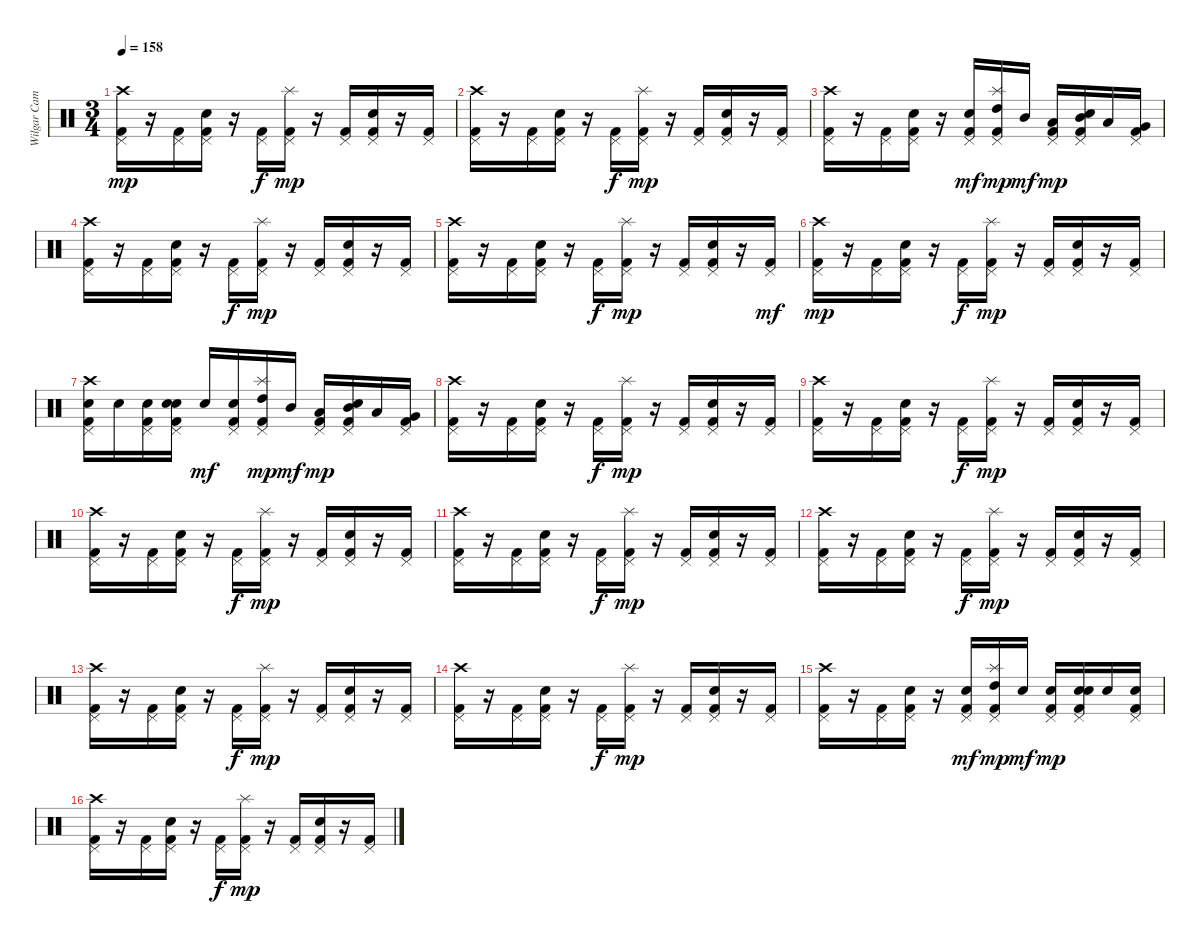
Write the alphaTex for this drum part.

\track ("Wilgar Campbell" "Wilgar Cam") {instrument percussion}
\staff {score}
\articulation defaults
\ts (3 4)
\tempo 158
\clef neutral
\ks c
("Crash high (hit)" "Pedal Hi-Hat (hit)" "Kick (hit) 2").16{dy mp} r.16 ("Pedal Hi-Hat (hit)" "Kick (hit) 2").16 ("Snare (hit) 2" "Pedal Hi-Hat (hit)" "Kick (hit) 2").16 r.16 ("Pedal Hi-Hat (hit)" "Kick (hit) 2").16{dy f} ("Splash (hit)" "Pedal Hi-Hat (hit)" "Kick (hit) 2").16{dy mp} r.16 ("Pedal Hi-Hat (hit)" "Kick (hit) 2").16 ("Snare (hit) 2" "Pedal Hi-Hat (hit)" "Kick (hit) 2").16 r.16 ("Pedal Hi-Hat (hit)" "Kick (hit) 2").16 |
("Crash high (hit)" "Pedal Hi-Hat (hit)" "Kick (hit) 2").16 r.16 ("Pedal Hi-Hat (hit)" "Kick (hit) 2").16 ("Snare (hit) 2" "Pedal Hi-Hat (hit)" "Kick (hit) 2").16 r.16 ("Pedal Hi-Hat (hit)" "Kick (hit) 2").16{dy f} ("Splash (hit)" "Pedal Hi-Hat (hit)" "Kick (hit) 2").16{dy mp} r.16 ("Pedal Hi-Hat (hit)" "Kick (hit) 2").16 ("Snare (hit) 2" "Pedal Hi-Hat (hit)" "Kick (hit) 2").16 r.16 ("Pedal Hi-Hat (hit)" "Kick (hit) 2").16 |
("Crash high (hit)" "Pedal Hi-Hat (hit)" "Kick (hit) 2").16 r.16 ("Pedal Hi-Hat (hit)" "Kick (hit) 2").16 ("Snare (hit) 2" "Pedal Hi-Hat (hit)" "Kick (hit) 2").16 r.16 ("Pedal Hi-Hat (hit)" "Electric Snare (hit)" "Kick (hit) 2").16{dy mf} ("Splash (hit)" "Pedal Hi-Hat (hit)" "High Tom (hit)" "Kick (hit) 2").16{dy mp} "Mid Tom (hit)".16{dy mf} ("Pedal Hi-Hat (hit)" "Low Tom (hit)" "Kick (hit) 2").16{dy mp} ("Snare (hit) 2" "Pedal Hi-Hat (hit)" "Mid Tom (hit)" "Kick (hit) 2").16 "Low Tom (hit)".16 ("Pedal Hi-Hat (hit)" "Very Low Tom (hit)" "Kick (hit) 2").16 |
("Crash high (hit)" "Pedal Hi-Hat (hit)" "Kick (hit) 2").16 r.16 ("Pedal Hi-Hat (hit)" "Kick (hit) 2").16 ("Snare (hit) 2" "Pedal Hi-Hat (hit)" "Kick (hit) 2").16 r.16 ("Pedal Hi-Hat (hit)" "Kick (hit) 2").16{dy f} ("Splash (hit)" "Pedal Hi-Hat (hit)" "Kick (hit) 2").16{dy mp} r.16 ("Pedal Hi-Hat (hit)" "Kick (hit) 2").16 ("Snare (hit) 2" "Pedal Hi-Hat (hit)" "Kick (hit) 2").16 r.16 ("Pedal Hi-Hat (hit)" "Kick (hit) 2").16 |
("Crash high (hit)" "Pedal Hi-Hat (hit)" "Kick (hit) 2").16 r.16 ("Pedal Hi-Hat (hit)" "Kick (hit) 2").16 ("Snare (hit) 2" "Pedal Hi-Hat (hit)" "Kick (hit) 2").16 r.16 ("Pedal Hi-Hat (hit)" "Kick (hit) 2").16{dy f} ("Splash (hit)" "Pedal Hi-Hat (hit)" "Kick (hit) 2").16{dy mp} r.16 ("Pedal Hi-Hat (hit)" "Kick (hit) 2").16 ("Snare (hit) 2" "Pedal Hi-Hat (hit)" "Kick (hit) 2").16 r.16 ("Pedal Hi-Hat (hit)" "Kick (hit) 2").16{dy mf} |
("Crash high (hit)" "Pedal Hi-Hat (hit)" "Kick (hit) 2").16{dy mp} r.16 ("Pedal Hi-Hat (hit)" "Kick (hit) 2").16 ("Snare (hit) 2" "Pedal Hi-Hat (hit)" "Kick (hit) 2").16 r.16 ("Pedal Hi-Hat (hit)" "Kick (hit) 2").16{dy f} ("Splash (hit)" "Pedal Hi-Hat (hit)" "Kick (hit) 2").16{dy mp} r.16 ("Pedal Hi-Hat (hit)" "Kick (hit) 2").16 ("Snare (hit) 2" "Pedal Hi-Hat (hit)" "Kick (hit) 2").16 r.16 ("Pedal Hi-Hat (hit)" "Kick (hit) 2").16 |
("Crash high (hit)" "Pedal Hi-Hat (hit)" "Electric Snare (hit)" "Kick (hit) 2").16 "Electric Snare (hit)".16 ("Pedal Hi-Hat (hit)" "Electric Snare (hit)" "Kick (hit) 2").16 ("Snare (hit) 2" "Pedal Hi-Hat (hit)" "Electric Snare (hit)" "Kick (hit) 2").16 "Electric Snare (hit)".16{dy mf} ("Pedal Hi-Hat (hit)" "Electric Snare (hit)" "Kick (hit) 2").16 ("Splash (hit)" "Pedal Hi-Hat (hit)" "High Tom (hit)" "Kick (hit) 2").16{dy mp} "Mid Tom (hit)".16{dy mf} ("Pedal Hi-Hat (hit)" "Low Tom (hit)" "Kick (hit) 2").16{dy mp} ("Snare (hit) 2" "Pedal Hi-Hat (hit)" "Mid Tom (hit)" "Kick (hit) 2").16 "Low Tom (hit)".16 ("Pedal Hi-Hat (hit)" "Very Low Tom (hit)" "Kick (hit) 2").16 |
("Crash high (hit)" "Pedal Hi-Hat (hit)" "Kick (hit) 2").16 r.16 ("Pedal Hi-Hat (hit)" "Kick (hit) 2").16 ("Snare (hit) 2" "Pedal Hi-Hat (hit)" "Kick (hit) 2").16 r.16 ("Pedal Hi-Hat (hit)" "Kick (hit) 2").16{dy f} ("Splash (hit)" "Pedal Hi-Hat (hit)" "Kick (hit) 2").16{dy mp} r.16 ("Pedal Hi-Hat (hit)" "Kick (hit) 2").16 ("Snare (hit) 2" "Pedal Hi-Hat (hit)" "Kick (hit) 2").16 r.16 ("Pedal Hi-Hat (hit)" "Kick (hit) 2").16 |
("Crash high (hit)" "Pedal Hi-Hat (hit)" "Kick (hit) 2").16 r.16 ("Pedal Hi-Hat (hit)" "Kick (hit) 2").16 ("Snare (hit) 2" "Pedal Hi-Hat (hit)" "Kick (hit) 2").16 r.16 ("Pedal Hi-Hat (hit)" "Kick (hit) 2").16{dy f} ("Splash (hit)" "Pedal Hi-Hat (hit)" "Kick (hit) 2").16{dy mp} r.16 ("Pedal Hi-Hat (hit)" "Kick (hit) 2").16 ("Snare (hit) 2" "Pedal Hi-Hat (hit)" "Kick (hit) 2").16 r.16 ("Pedal Hi-Hat (hit)" "Kick (hit) 2").16 |
("Crash high (hit)" "Pedal Hi-Hat (hit)" "Kick (hit) 2").16 r.16 ("Pedal Hi-Hat (hit)" "Kick (hit) 2").16 ("Snare (hit) 2" "Pedal Hi-Hat (hit)" "Kick (hit) 2").16 r.16 ("Pedal Hi-Hat (hit)" "Kick (hit) 2").16{dy f} ("Splash (hit)" "Pedal Hi-Hat (hit)" "Kick (hit) 2").16{dy mp} r.16 ("Pedal Hi-Hat (hit)" "Kick (hit) 2").16 ("Snare (hit) 2" "Pedal Hi-Hat (hit)" "Kick (hit) 2").16 r.16 ("Pedal Hi-Hat (hit)" "Kick (hit) 2").16 |
("Crash high (hit)" "Pedal Hi-Hat (hit)" "Kick (hit) 2").16 r.16 ("Pedal Hi-Hat (hit)" "Kick (hit) 2").16 ("Snare (hit) 2" "Pedal Hi-Hat (hit)" "Kick (hit) 2").16 r.16 ("Pedal Hi-Hat (hit)" "Kick (hit) 2").16{dy f} ("Splash (hit)" "Pedal Hi-Hat (hit)" "Kick (hit) 2").16{dy mp} r.16 ("Pedal Hi-Hat (hit)" "Kick (hit) 2").16 ("Snare (hit) 2" "Pedal Hi-Hat (hit)" "Kick (hit) 2").16 r.16 ("Pedal Hi-Hat (hit)" "Kick (hit) 2").16 |
("Crash high (hit)" "Pedal Hi-Hat (hit)" "Kick (hit) 2").16 r.16 ("Pedal Hi-Hat (hit)" "Kick (hit) 2").16 ("Snare (hit) 2" "Pedal Hi-Hat (hit)" "Kick (hit) 2").16 r.16 ("Pedal Hi-Hat (hit)" "Kick (hit) 2").16{dy f} ("Splash (hit)" "Pedal Hi-Hat (hit)" "Kick (hit) 2").16{dy mp} r.16 ("Pedal Hi-Hat (hit)" "Kick (hit) 2").16 ("Snare (hit) 2" "Pedal Hi-Hat (hit)" "Kick (hit) 2").16 r.16 ("Pedal Hi-Hat (hit)" "Kick (hit) 2").16 |
("Crash high (hit)" "Pedal Hi-Hat (hit)" "Kick (hit) 2").16 r.16 ("Pedal Hi-Hat (hit)" "Kick (hit) 2").16 ("Snare (hit) 2" "Pedal Hi-Hat (hit)" "Kick (hit) 2").16 r.16 ("Pedal Hi-Hat (hit)" "Kick (hit) 2").16{dy f} ("Splash (hit)" "Pedal Hi-Hat (hit)" "Kick (hit) 2").16{dy mp} r.16 ("Pedal Hi-Hat (hit)" "Kick (hit) 2").16 ("Snare (hit) 2" "Pedal Hi-Hat (hit)" "Kick (hit) 2").16 r.16 ("Pedal Hi-Hat (hit)" "Kick (hit) 2").16 |
("Crash high (hit)" "Pedal Hi-Hat (hit)" "Kick (hit) 2").16 r.16 ("Pedal Hi-Hat (hit)" "Kick (hit) 2").16 ("Snare (hit) 2" "Pedal Hi-Hat (hit)" "Kick (hit) 2").16 r.16 ("Pedal Hi-Hat (hit)" "Kick (hit) 2").16{dy f} ("Splash (hit)" "Pedal Hi-Hat (hit)" "Kick (hit) 2").16{dy mp} r.16 ("Pedal Hi-Hat (hit)" "Kick (hit) 2").16 ("Snare (hit) 2" "Pedal Hi-Hat (hit)" "Kick (hit) 2").16 r.16 ("Pedal Hi-Hat (hit)" "Kick (hit) 2").16 |
("Crash high (hit)" "Pedal Hi-Hat (hit)" "Kick (hit) 2").16 r.16 ("Pedal Hi-Hat (hit)" "Kick (hit) 2").16 ("Snare (hit) 2" "Pedal Hi-Hat (hit)" "Kick (hit) 2").16 r.16 ("Pedal Hi-Hat (hit)" "Electric Snare (hit)" "Kick (hit) 2").16{dy mf} ("Splash (hit)" "Pedal Hi-Hat (hit)" "High Tom (hit)" "Kick (hit) 2").16{dy mp} "Electric Snare (hit)".16{dy mf} ("Pedal Hi-Hat (hit)" "Electric Snare (hit)" "Kick (hit) 2").16{dy mp} ("Snare (hit) 2" "Pedal Hi-Hat (hit)" "Electric Snare (hit)" "Kick (hit) 2").16 "Electric Snare (hit)".16 ("Pedal Hi-Hat (hit)" "Electric Snare (hit)" "Kick (hit) 2").16 |
("Crash high (hit)" "Pedal Hi-Hat (hit)" "Kick (hit) 2").16 r.16 ("Pedal Hi-Hat (hit)" "Kick (hit) 2").16 ("Snare (hit) 2" "Pedal Hi-Hat (hit)" "Kick (hit) 2").16 r.16 ("Pedal Hi-Hat (hit)" "Kick (hit) 2").16{dy f} ("Splash (hit)" "Pedal Hi-Hat (hit)" "Kick (hit) 2").16{dy mp} r.16 ("Pedal Hi-Hat (hit)" "Kick (hit) 2").16 ("Snare (hit) 2" "Pedal Hi-Hat (hit)" "Kick (hit) 2").16 r.16 ("Pedal Hi-Hat (hit)" "Kick (hit) 2").16
